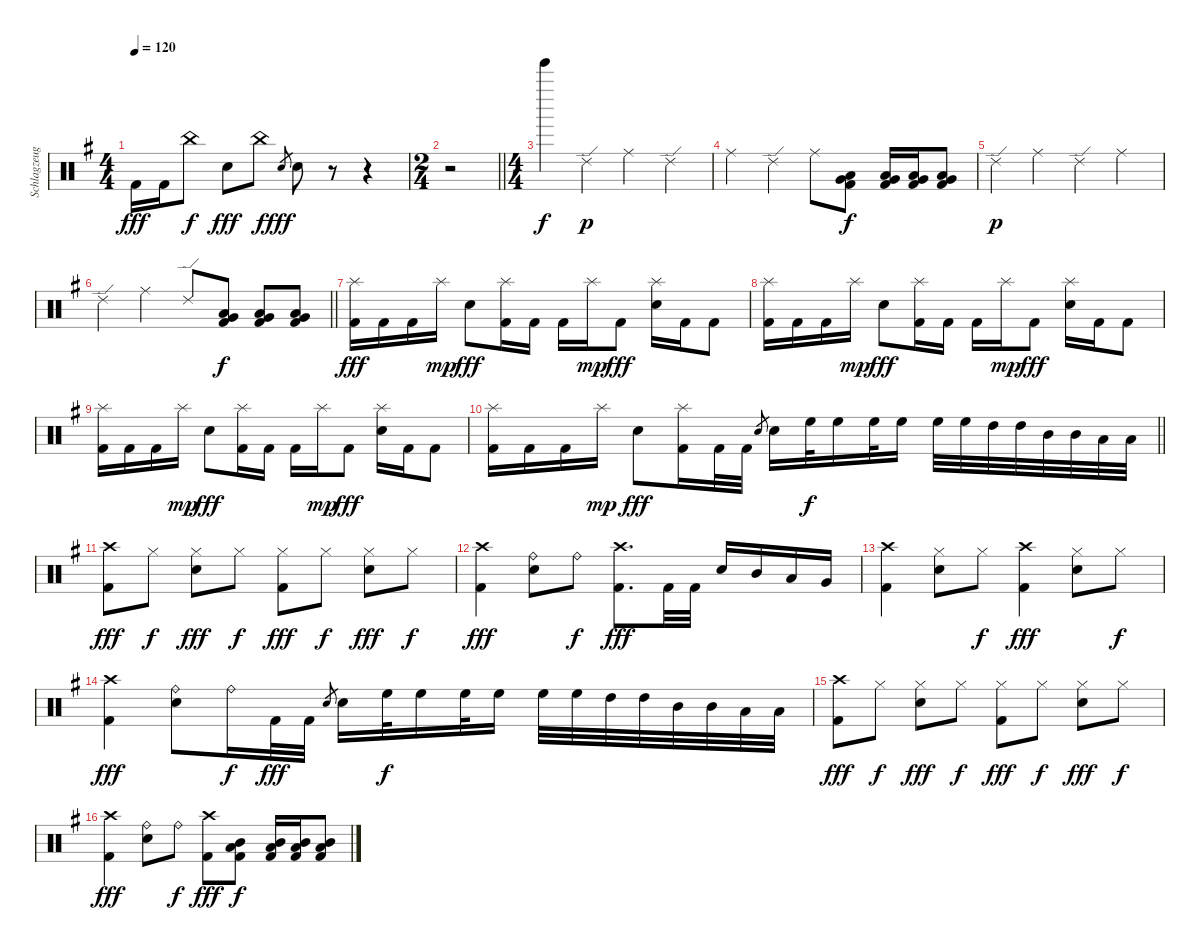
\track ("Schlagzeug" "Schlagzeug") {instrument percussion}
\staff {score}
\articulation defaults
\ts (4 4)
\tempo 120
\clef neutral
\ks eminor "Kick (hit) 2".16{dy fff} "Kick (hit) 2".16 "China (hit)".8{dy f} "Snare (hit) 2".8{dy fff} "China (hit)".8{dy f} "Snare (hit) 2".8{gr dy fff} "Snare (hit) 2".8
r.8 r.4 |
\ts (2 4)
\barLineRight lightlight
r.2 |
\ts (4 4)
"Tinkle Bell (hit)".4{dy f} "Ride (edge) 2".4{dy p} "Ride (middle)".4 "Ride (edge) 2".4 |
"Ride (middle)".4 "Ride (edge) 2".4 "Ride (middle)".8 ("Low Tom (hit)" "Very Low Tom (hit)" "Kick (hit) 2").8{dy f} ("Low Tom (hit)" "Very Low Tom (hit)" "Kick (hit) 2").16 ("Low Tom (hit)" "Very Low Tom (hit)" "Kick (hit) 2").16 ("Low Tom (hit)" "Very Low Tom (hit)" "Kick (hit) 2").8 |
"Ride (edge) 2".4{dy p} "Ride (middle)".4 "Ride (edge) 2".4 "Ride (middle)".4 |
\barLineRight lightlight "Ride (edge) 2".4 "Ride (middle)".4 "Ride (edge) 2".8
("Low Tom (hit)" "Very Low Tom (hit)" "Kick (hit) 2").8{dy f} ("Low Tom (hit)" "Very Low Tom (hit)" "Kick (hit) 2").8 ("Low Tom (hit)" "Very Low Tom (hit)" "Kick (hit) 2").8 |
("Splash (hit)" "Kick (hit) 2").16{dy fff} "Kick (hit) 2".16 "Kick (hit) 2".16 "Splash (hit)".16{dy mp} "Snare (hit) 2".8{dy fff} ("Splash (hit)" "Kick (hit) 2").16 "Kick (hit) 2".16 "Kick (hit) 2".16 "Splash (hit)".16{dy mp} "Kick (hit) 2".8{dy fff} ("Splash (hit)" "Snare (hit) 2").16 "Kick (hit) 2".16 "Kick (hit) 2".8 |
("Splash (hit)" "Kick (hit) 2").16 "Kick (hit) 2".16 "Kick (hit) 2".16 "Splash (hit)".16{dy mp} "Snare (hit) 2".8{dy fff} ("Splash (hit)" "Kick (hit) 2").16 "Kick (hit) 2".16 "Kick (hit) 2".16 "Splash (hit)".16{dy mp} "Kick (hit) 2".8{dy fff} ("Splash (hit)" "Snare (hit) 2").16 "Kick (hit) 2".16 "Kick (hit) 2".8 |
("Splash (hit)" "Kick (hit) 2").16 "Kick (hit) 2".16 "Kick (hit) 2".16 "Splash (hit)".16{dy mp} "Snare (hit) 2".8{dy fff} ("Splash (hit)" "Kick (hit) 2").16 "Kick (hit) 2".16 "Kick (hit) 2".16 "Splash (hit)".16{dy mp} "Kick (hit) 2".8{dy fff} ("Splash (hit)" "Snare (hit) 2").16 "Kick (hit) 2".16 "Kick (hit) 2".8 |
\barLineRight lightlight
("Splash (hit)" "Kick (hit) 2").16 "Kick (hit) 2".16 "Kick (hit) 2".16 "Splash (hit)".16{dy mp} "Snare (hit) 2".8{dy fff} ("Splash (hit)" "Kick (hit) 2").16 "Kick (hit) 2".32 "Kick (hit) 2".32 "Snare (hit) 2".8{gr} "Snare (hit) 2".16 "High Floor Tom (hit)".32{dy f} "High Floor Tom (hit)".16 "High Floor Tom (hit)".32 "High Floor Tom (hit)".16 "High Floor Tom (hit)".32 "High Floor Tom (hit)".32 "High Tom (hit)".32 "High Tom (hit)".32 "Mid Tom (hit)".32 "Mid Tom (hit)".32 "Low Tom (hit)".32 "Low Tom (hit)".32 |
("Crash high (hit)" "Kick (hit) 2").8{dy fff} "Hi-Hat (closed)".8{dy f} ("Hi-Hat (closed)" "Snare (hit) 2").8{dy fff} "Hi-Hat (closed)".8{dy f} ("Hi-Hat (closed)" "Kick (hit) 2").8{dy fff} "Hi-Hat (closed)".8{dy f} ("Hi-Hat (closed)" "Snare (hit) 2").8{dy fff} "Hi-Hat (closed)".8{dy f} |
("Crash high (hit)" "Kick (hit) 2").4{dy fff} ("Ride (bell)" "Snare (hit) 2").8 "Ride (bell)".8{dy f} ("Crash high (hit)" "Kick (hit) 2").8{d dy fff} "Kick (hit) 2".32 "Kick (hit) 2".32 "Snare (hit) 2".16 "Mid Tom (hit)".16 "Low Tom (hit)".16 "Very Low Tom (hit)".16 |
("Crash high (hit)" "Kick (hit) 2").4 ("Hi-Hat (closed)" "Snare (hit) 2").8 "Hi-Hat (closed)".8{dy f} ("Crash high (hit)" "Kick (hit) 2").4{dy fff} ("Hi-Hat (closed)" "Snare (hit) 2").8 "Hi-Hat (closed)".8{dy f} |
("Crash high (hit)" "Kick (hit) 2").4{dy fff} ("Ride (bell)" "Snare (hit) 2").8 "Ride (bell)".16{dy f} "Kick (hit) 2".32{dy fff} "Kick (hit) 2".32 "Snare (hit) 2".8{gr} "Snare (hit) 2".16 "High Floor Tom (hit)".32{dy f} "High Floor Tom (hit)".16 "High Floor Tom (hit)".32 "High Floor Tom (hit)".16 "High Floor Tom (hit)".32 "High Floor Tom (hit)".32 "High Tom (hit)".32 "High Tom (hit)".32 "Mid Tom (hit)".32 "Mid Tom (hit)".32 "Low Tom (hit)".32 "Low Tom (hit)".32 |
("Crash high (hit)" "Kick (hit) 2").8{dy fff} "Hi-Hat (closed)".8{dy f} ("Hi-Hat (closed)" "Snare (hit) 2").8{dy fff} "Hi-Hat (closed)".8{dy f} ("Hi-Hat (closed)" "Kick (hit) 2").8{dy fff} "Hi-Hat (closed)".8{dy f} ("Hi-Hat (closed)" "Snare (hit) 2").8{dy fff} "Hi-Hat (closed)".8{dy f} |
("Crash high (hit)" "Kick (hit) 2").4{dy fff} ("Ride (bell)" "Snare (hit) 2").8 "Ride (bell)".8{dy f} ("Crash high (hit)" "Kick (hit) 2").8{dy fff} ("Mid Tom (hit)" "Low Tom (hit)" "Kick (hit) 2").8{dy f} ("Mid Tom (hit)" "Low Tom (hit)" "Kick (hit) 2").16 ("Mid Tom (hit)" "Low Tom (hit)" "Kick (hit) 2").16 ("Mid Tom (hit)" "Low Tom (hit)" "Kick (hit) 2").8
